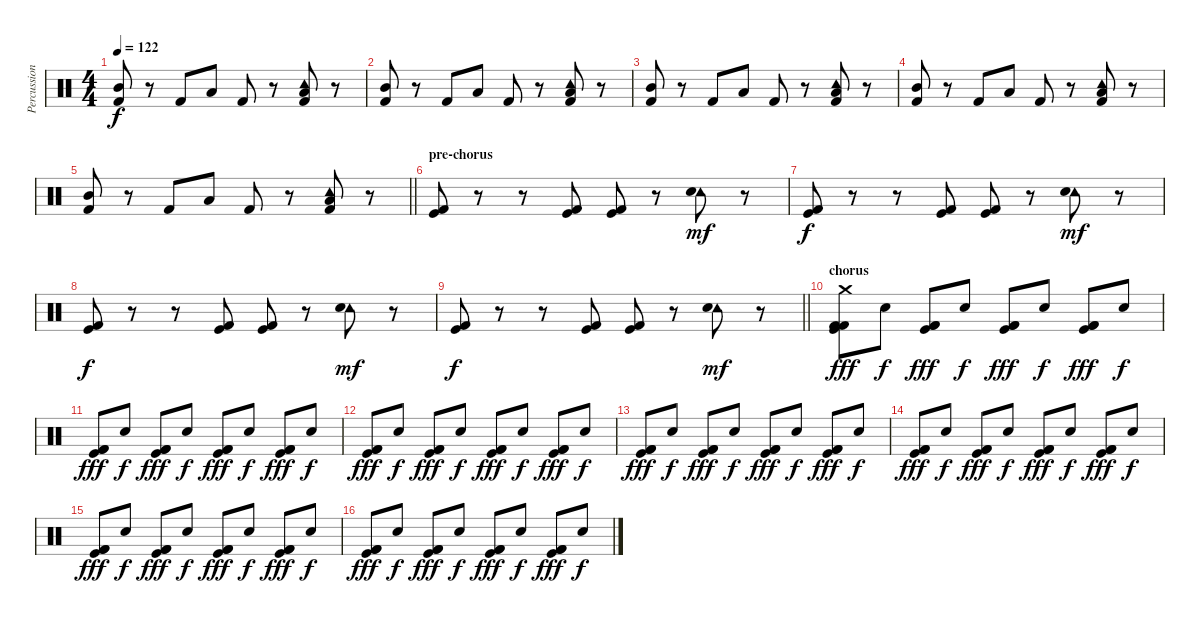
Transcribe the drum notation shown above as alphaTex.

\track ("Percussion" "Percussion") {instrument percussion}
\staff {score}
\articulation defaults
\ts (4 4)
\tempo 122
\clef neutral
\ks c
("Mid Tom (hit)" "Kick (hit) 2").8{dy f} r.8 "Kick (hit) 2".8 "Low Tom (hit)".8 "Kick (hit) 2".8 r.8 ("Tambourine (hit)" "Low Floor Tom (hit)" "Kick (hit) 2").8 r.8 |
("Mid Tom (hit)" "Kick (hit) 2").8 r.8 "Kick (hit) 2".8 "Low Tom (hit)".8 "Kick (hit) 2".8 r.8 ("Tambourine (hit)" "Low Floor Tom (hit)" "Kick (hit) 2").8 r.8 |
("Mid Tom (hit)" "Kick (hit) 2").8 r.8 "Kick (hit) 2".8 "Low Tom (hit)".8 "Kick (hit) 2".8 r.8 ("Tambourine (hit)" "Low Floor Tom (hit)" "Kick (hit) 2").8 r.8 |
("Mid Tom (hit)" "Kick (hit) 2").8 r.8 "Kick (hit) 2".8 "Low Tom (hit)".8 "Kick (hit) 2".8 r.8 ("Tambourine (hit)" "Low Floor Tom (hit)" "Kick (hit) 2").8 r.8 |
\barLineRight lightlight
("Mid Tom (hit)" "Kick (hit) 2").8 r.8 "Kick (hit) 2".8 "Low Tom (hit)".8 "Kick (hit) 2".8 r.8 ("Tambourine (hit)" "Low Floor Tom (hit)" "Kick (hit) 2").8 r.8 |
\section ("" "pre-chorus")
("Kick (hit)" "Kick (hit) 2").8 r.8 r.8 ("Kick (hit) 2" "Kick (hit)").8 ("Kick (hit) 2" "Kick (hit)").8 r.8 ("Tambourine (hit)" "Snare (hit) 2").8{dy mf} r.8 |
("Kick (hit)" "Kick (hit) 2").8{dy f} r.8 r.8 ("Kick (hit) 2" "Kick (hit)").8 ("Kick (hit) 2" "Kick (hit)").8 r.8 ("Tambourine (hit)" "Snare (hit) 2").8{dy mf} r.8 |
("Kick (hit)" "Kick (hit) 2").8{dy f} r.8 r.8 ("Kick (hit) 2" "Kick (hit)").8 ("Kick (hit) 2" "Kick (hit)").8 r.8 ("Tambourine (hit)" "Snare (hit) 2").8{dy mf} r.8 |
\barLineRight lightlight
("Kick (hit)" "Kick (hit) 2").8{dy f} r.8 r.8 ("Kick (hit) 2" "Kick (hit)").8 ("Kick (hit) 2" "Kick (hit)").8 r.8 ("Tambourine (hit)" "Snare (hit) 2").8{dy mf} r.8 |
\section ("" "chorus")
("Crash medium (hit)" "Kick (hit) 2" "Kick (hit)" "Kick (hit) 2").8{dy fff} "Hand Clap (hit)".8{dy f} ("Kick (hit) 2" "Kick (hit)" "Kick (hit) 2").8{dy fff} "Hand Clap (hit)".8{dy f} ("Kick (hit) 2" "Kick (hit)" "Kick (hit) 2").8{dy fff} "Hand Clap (hit)".8{dy f} ("Kick (hit) 2" "Kick (hit)" "Kick (hit) 2").8{dy fff} "Hand Clap (hit)".8{dy f} |
("Kick (hit) 2" "Kick (hit)" "Kick (hit) 2").8{dy fff} "Hand Clap (hit)".8{dy f} ("Kick (hit) 2" "Kick (hit)" "Kick (hit) 2").8{dy fff} "Hand Clap (hit)".8{dy f} ("Kick (hit) 2" "Kick (hit)" "Kick (hit) 2").8{dy fff} "Hand Clap (hit)".8{dy f} ("Kick (hit) 2" "Kick (hit)" "Kick (hit) 2").8{dy fff} "Hand Clap (hit)".8{dy f} |
("Kick (hit) 2" "Kick (hit)" "Kick (hit) 2").8{dy fff} "Hand Clap (hit)".8{dy f} ("Kick (hit) 2" "Kick (hit)" "Kick (hit) 2").8{dy fff} "Hand Clap (hit)".8{dy f} ("Kick (hit) 2" "Kick (hit)" "Kick (hit) 2").8{dy fff} "Hand Clap (hit)".8{dy f} ("Kick (hit) 2" "Kick (hit)" "Kick (hit) 2").8{dy fff} "Hand Clap (hit)".8{dy f} |
("Kick (hit) 2" "Kick (hit)" "Kick (hit) 2").8{dy fff} "Hand Clap (hit)".8{dy f} ("Kick (hit) 2" "Kick (hit)" "Kick (hit) 2").8{dy fff} "Hand Clap (hit)".8{dy f} ("Kick (hit) 2" "Kick (hit)" "Kick (hit) 2").8{dy fff} "Hand Clap (hit)".8{dy f} ("Kick (hit) 2" "Kick (hit)" "Kick (hit) 2").8{dy fff} "Hand Clap (hit)".8{dy f} |
("Kick (hit) 2" "Kick (hit)" "Kick (hit) 2").8{dy fff} "Hand Clap (hit)".8{dy f} ("Kick (hit) 2" "Kick (hit)" "Kick (hit) 2").8{dy fff} "Hand Clap (hit)".8{dy f} ("Kick (hit) 2" "Kick (hit)" "Kick (hit) 2").8{dy fff} "Hand Clap (hit)".8{dy f} ("Kick (hit) 2" "Kick (hit)" "Kick (hit) 2").8{dy fff} "Hand Clap (hit)".8{dy f} |
("Kick (hit) 2" "Kick (hit)" "Kick (hit) 2").8{dy fff} "Hand Clap (hit)".8{dy f} ("Kick (hit) 2" "Kick (hit)" "Kick (hit) 2").8{dy fff} "Hand Clap (hit)".8{dy f} ("Kick (hit) 2" "Kick (hit)" "Kick (hit) 2").8{dy fff} "Hand Clap (hit)".8{dy f} ("Kick (hit) 2" "Kick (hit)" "Kick (hit) 2").8{dy fff} "Hand Clap (hit)".8{dy f} |
("Kick (hit) 2" "Kick (hit)" "Kick (hit) 2").8{dy fff} "Hand Clap (hit)".8{dy f} ("Kick (hit) 2" "Kick (hit)" "Kick (hit) 2").8{dy fff} "Hand Clap (hit)".8{dy f} ("Kick (hit) 2" "Kick (hit)" "Kick (hit) 2").8{dy fff} "Hand Clap (hit)".8{dy f} ("Kick (hit) 2" "Kick (hit)" "Kick (hit) 2").8{dy fff} "Hand Clap (hit)".8{dy f}
